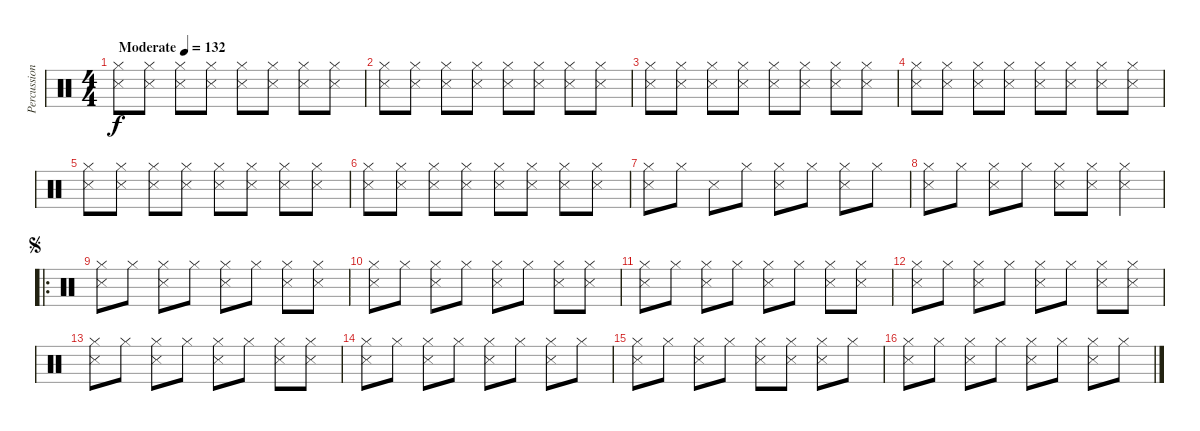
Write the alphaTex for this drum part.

\track ("Percussion" "Percussion") {instrument percussion}
\staff {score}
\articulation defaults
\ts (4 4)
\tempo (132 "Moderate")
\clef neutral
\ks c
("Hi-Hat (closed)" "Snare (side stick) 3").8{dy f} ("Hi-Hat (closed)" "Snare (side stick) 3").8 ("Hi-Hat (closed)" "Snare (side stick) 3").8 ("Hi-Hat (closed)" "Snare (side stick) 3").8 ("Hi-Hat (closed)" "Snare (side stick) 3").8 ("Hi-Hat (closed)" "Snare (side stick) 3").8 ("Hi-Hat (closed)" "Snare (side stick) 3").8 ("Hi-Hat (closed)" "Snare (side stick) 3").8 |
("Hi-Hat (closed)" "Snare (side stick) 3").8 ("Hi-Hat (closed)" "Snare (side stick) 3").8 ("Hi-Hat (closed)" "Snare (side stick) 3").8 ("Hi-Hat (closed)" "Snare (side stick) 3").8 ("Hi-Hat (closed)" "Snare (side stick) 3").8 ("Hi-Hat (closed)" "Snare (side stick) 3").8 ("Hi-Hat (closed)" "Snare (side stick) 3").8 ("Hi-Hat (closed)" "Snare (side stick) 3").8 |
("Hi-Hat (closed)" "Snare (side stick) 3").8 ("Hi-Hat (closed)" "Snare (side stick) 3").8 ("Hi-Hat (closed)" "Snare (side stick) 3").8 ("Hi-Hat (closed)" "Snare (side stick) 3").8 ("Hi-Hat (closed)" "Snare (side stick) 3").8 ("Hi-Hat (closed)" "Snare (side stick) 3").8 ("Hi-Hat (closed)" "Snare (side stick) 3").8 ("Hi-Hat (closed)" "Snare (side stick) 3").8 |
("Hi-Hat (closed)" "Snare (side stick) 3").8 ("Hi-Hat (closed)" "Snare (side stick) 3").8 ("Hi-Hat (closed)" "Snare (side stick) 3").8 ("Hi-Hat (closed)" "Snare (side stick) 3").8 ("Hi-Hat (closed)" "Snare (side stick) 3").8 ("Hi-Hat (closed)" "Snare (side stick) 3").8 ("Hi-Hat (closed)" "Snare (side stick) 3").8 ("Hi-Hat (closed)" "Snare (side stick) 3").8 |
("Hi-Hat (closed)" "Snare (side stick) 3").8 ("Hi-Hat (closed)" "Snare (side stick) 3").8 ("Hi-Hat (closed)" "Snare (side stick) 3").8 ("Hi-Hat (closed)" "Snare (side stick) 3").8 ("Hi-Hat (closed)" "Snare (side stick) 3").8 ("Hi-Hat (closed)" "Snare (side stick) 3").8 ("Hi-Hat (closed)" "Snare (side stick) 3").8 ("Hi-Hat (closed)" "Snare (side stick) 3").8 |
("Hi-Hat (closed)" "Snare (side stick) 3").8 ("Hi-Hat (closed)" "Snare (side stick) 3").8 ("Hi-Hat (closed)" "Snare (side stick) 3").8 ("Hi-Hat (closed)" "Snare (side stick) 3").8 ("Hi-Hat (closed)" "Snare (side stick) 3").8 ("Hi-Hat (closed)" "Snare (side stick) 3").8 ("Hi-Hat (closed)" "Snare (side stick) 3").8 ("Hi-Hat (closed)" "Snare (side stick) 3").8 |
("Hi-Hat (closed)" "Snare (side stick) 3").8 "Hi-Hat (closed)".8 "Snare (side stick) 3".8 "Hi-Hat (closed)".8 ("Hi-Hat (closed)" "Snare (side stick) 3").8 "Hi-Hat (closed)".8 ("Hi-Hat (closed)" "Snare (side stick) 3").8 "Hi-Hat (closed)".8 |
("Hi-Hat (closed)" "Snare (side stick) 3").8 "Hi-Hat (closed)".8 ("Hi-Hat (closed)" "Snare (side stick) 3").8 "Hi-Hat (closed)".8 ("Hi-Hat (closed)" "Snare (side stick) 3").8 ("Hi-Hat (closed)" "Snare (side stick) 3").8 ("Hi-Hat (closed)" "Snare (side stick) 3").4 |
\ro
\jump segno
("Hi-Hat (closed)" "Snare (side stick) 3").8 "Hi-Hat (closed)".8 ("Hi-Hat (closed)" "Snare (side stick) 3").8 "Hi-Hat (closed)".8 ("Hi-Hat (closed)" "Snare (side stick) 3").8 "Hi-Hat (closed)".8 ("Hi-Hat (closed)" "Snare (side stick) 3").8 ("Hi-Hat (closed)" "Snare (side stick) 3").8 |
("Hi-Hat (closed)" "Snare (side stick) 3").8 "Hi-Hat (closed)".8 ("Hi-Hat (closed)" "Snare (side stick) 3").8 "Hi-Hat (closed)".8 ("Hi-Hat (closed)" "Snare (side stick) 3").8 "Hi-Hat (closed)".8 ("Hi-Hat (closed)" "Snare (side stick) 3").8 ("Hi-Hat (closed)" "Snare (side stick) 3").8 |
("Hi-Hat (closed)" "Snare (side stick) 3").8 "Hi-Hat (closed)".8 ("Hi-Hat (closed)" "Snare (side stick) 3").8 "Hi-Hat (closed)".8 ("Hi-Hat (closed)" "Snare (side stick) 3").8 "Hi-Hat (closed)".8 ("Hi-Hat (closed)" "Snare (side stick) 3").8 ("Hi-Hat (closed)" "Snare (side stick) 3").8 |
("Hi-Hat (closed)" "Snare (side stick) 3").8 "Hi-Hat (closed)".8 ("Hi-Hat (closed)" "Snare (side stick) 3").8 "Hi-Hat (closed)".8 ("Hi-Hat (closed)" "Snare (side stick) 3").8 "Hi-Hat (closed)".8 ("Hi-Hat (closed)" "Snare (side stick) 3").8 ("Hi-Hat (closed)" "Snare (side stick) 3").8 |
("Hi-Hat (closed)" "Snare (side stick) 3").8 "Hi-Hat (closed)".8 ("Hi-Hat (closed)" "Snare (side stick) 3").8 "Hi-Hat (closed)".8 ("Hi-Hat (closed)" "Snare (side stick) 3").8 "Hi-Hat (closed)".8 ("Hi-Hat (closed)" "Snare (side stick) 3").8 ("Hi-Hat (closed)" "Snare (side stick) 3").8 |
("Hi-Hat (closed)" "Snare (side stick) 3").8 "Hi-Hat (closed)".8 ("Hi-Hat (closed)" "Snare (side stick) 3").8 "Hi-Hat (closed)".8 ("Hi-Hat (closed)" "Snare (side stick) 3").8 "Hi-Hat (closed)".8 ("Hi-Hat (closed)" "Snare (side stick) 3").8 "Hi-Hat (closed)".8 |
("Hi-Hat (closed)" "Snare (side stick) 3").8 "Hi-Hat (closed)".8 ("Hi-Hat (closed)" "Snare (side stick) 3").8 "Hi-Hat (closed)".8 ("Hi-Hat (closed)" "Snare (side stick) 3").8 ("Hi-Hat (closed)" "Snare (side stick) 3").8 ("Hi-Hat (closed)" "Snare (side stick) 3").8 "Hi-Hat (closed)".8 |
("Hi-Hat (closed)" "Snare (side stick) 3").8 "Hi-Hat (closed)".8 ("Hi-Hat (closed)" "Snare (side stick) 3").8 "Hi-Hat (closed)".8 ("Hi-Hat (closed)" "Snare (side stick) 3").8 "Hi-Hat (closed)".8 ("Hi-Hat (closed)" "Snare (side stick) 3").8 "Hi-Hat (closed)".8
